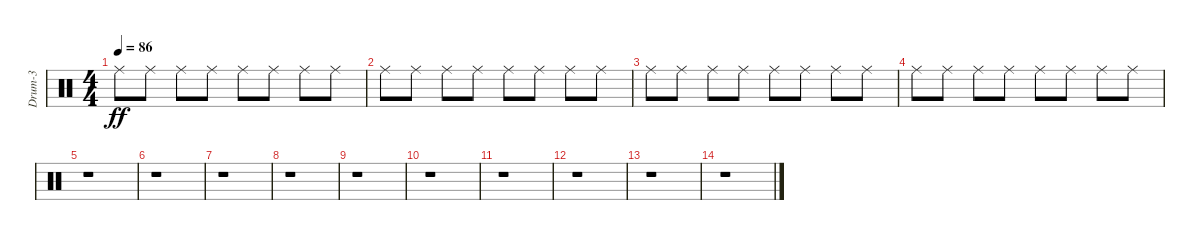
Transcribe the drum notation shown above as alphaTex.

\track ("Drum-3" "Drum-3") {instrument percussion}
\staff {score}
\articulation defaults
\ts (4 4)
\tempo 86
\clef neutral
\ks c "Ride (middle)".8{dy ff} "Ride (middle)".8 "Ride (middle)".8 "Ride (middle)".8 "Ride (middle)".8 "Ride (middle)".8 "Ride (middle)".8 "Ride (middle)".8
|
"Ride (middle)".8 "Ride (middle)".8 "Ride (middle)".8 "Ride (middle)".8 "Ride (middle)".8 "Ride (middle)".8 "Ride (middle)".8 "Ride (middle)".8 |
"Ride (middle)".8 "Ride (middle)".8 "Ride (middle)".8 "Ride (middle)".8 "Ride (middle)".8 "Ride (middle)".8 "Ride (middle)".8 "Ride (middle)".8 |
"Ride (middle)".8 "Ride (middle)".8 "Ride (middle)".8 "Ride (middle)".8 "Ride (middle)".8 "Ride (middle)".8 "Ride (middle)".8 "Ride (middle)".8 |
r.1 |
r.1 |
r.1 |
r.1 |
r.1 |
r.1 |
r.1 |
r.1 |
r.1 |
r.1
